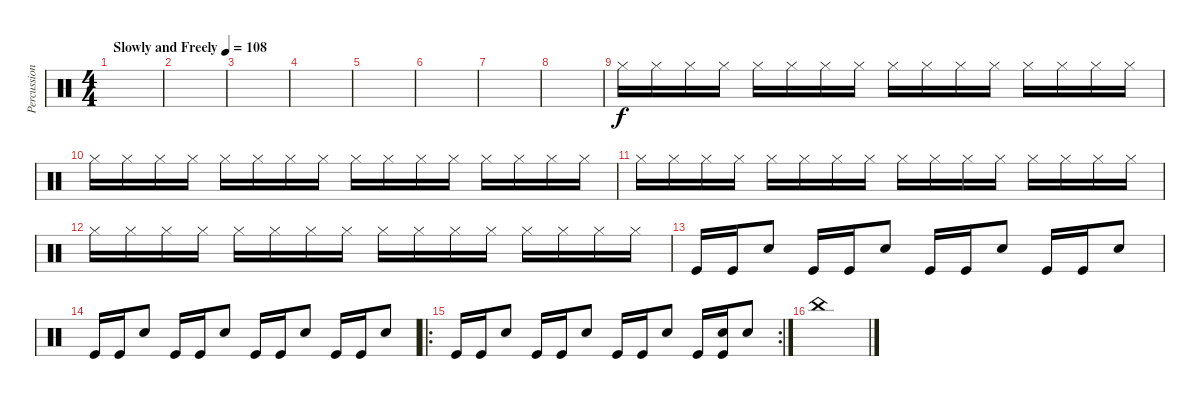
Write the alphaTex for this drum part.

\track ("Percussion" "Percussion") {instrument percussion}
\staff {score}
\articulation defaults
\ts (4 4)
\tempo (108 "Slowly and Freely")
\clef neutral
\ks c
|
|
|
|
|
|
|
|
"Hi-Hat (closed)".16 "Hi-Hat (closed)".16 "Hi-Hat (closed)".16 "Hi-Hat (closed)".16 "Hi-Hat (closed)".16 "Hi-Hat (closed)".16 "Hi-Hat (closed)".16 "Hi-Hat (closed)".16 "Hi-Hat (closed)".16 "Hi-Hat (closed)".16 "Hi-Hat (closed)".16 "Hi-Hat (closed)".16 "Hi-Hat (closed)".16 "Hi-Hat (closed)".16 "Hi-Hat (closed)".16 "Hi-Hat (closed)".16 |
"Hi-Hat (closed)".16 "Hi-Hat (closed)".16 "Hi-Hat (closed)".16 "Hi-Hat (closed)".16 "Hi-Hat (closed)".16 "Hi-Hat (closed)".16 "Hi-Hat (closed)".16 "Hi-Hat (closed)".16 "Hi-Hat (closed)".16 "Hi-Hat (closed)".16 "Hi-Hat (closed)".16 "Hi-Hat (closed)".16 "Hi-Hat (closed)".16 "Hi-Hat (closed)".16 "Hi-Hat (closed)".16 "Hi-Hat (closed)".16 |
"Hi-Hat (closed)".16 "Hi-Hat (closed)".16 "Hi-Hat (closed)".16 "Hi-Hat (closed)".16 "Hi-Hat (closed)".16 "Hi-Hat (closed)".16 "Hi-Hat (closed)".16 "Hi-Hat (closed)".16 "Hi-Hat (closed)".16 "Hi-Hat (closed)".16 "Hi-Hat (closed)".16 "Hi-Hat (closed)".16 "Hi-Hat (closed)".16 "Hi-Hat (closed)".16 "Hi-Hat (closed)".16 "Hi-Hat (closed)".16 |
"Hi-Hat (closed)".16 "Hi-Hat (closed)".16 "Hi-Hat (closed)".16 "Hi-Hat (closed)".16 "Hi-Hat (closed)".16 "Hi-Hat (closed)".16 "Hi-Hat (closed)".16 "Hi-Hat (closed)".16 "Hi-Hat (closed)".16 "Hi-Hat (closed)".16 "Hi-Hat (closed)".16 "Hi-Hat (closed)".16 "Hi-Hat (closed)".16 "Hi-Hat (closed)".16 "Hi-Hat (closed)".16 "Hi-Hat (closed)".16 |
"Kick (hit)".16 "Kick (hit)".16 "Electric Snare (hit)".8 "Kick (hit)".16 "Kick (hit)".16 "Electric Snare (hit)".8 "Kick (hit)".16 "Kick (hit)".16 "Electric Snare (hit)".8 "Kick (hit)".16 "Kick (hit)".16 "Electric Snare (hit)".8 |
"Kick (hit)".16 "Kick (hit)".16 "Electric Snare (hit)".8 "Kick (hit)".16 "Kick (hit)".16 "Electric Snare (hit)".8 "Kick (hit)".16 "Kick (hit)".16 "Electric Snare (hit)".8 "Kick (hit)".16 "Kick (hit)".16 "Electric Snare (hit)".8 |
\ro
\rc 2 "Kick (hit)".16 "Kick (hit)".16 "Electric Snare (hit)".8 "Kick (hit)".16 "Kick (hit)".16 "Electric Snare (hit)".8 "Kick (hit)".16 "Kick (hit)".16 "Electric Snare (hit)".8 "Kick (hit)".16
("Electric Snare (hit)" "Kick (hit)").16 "Electric Snare (hit)".8 |
"China (hit)".1
